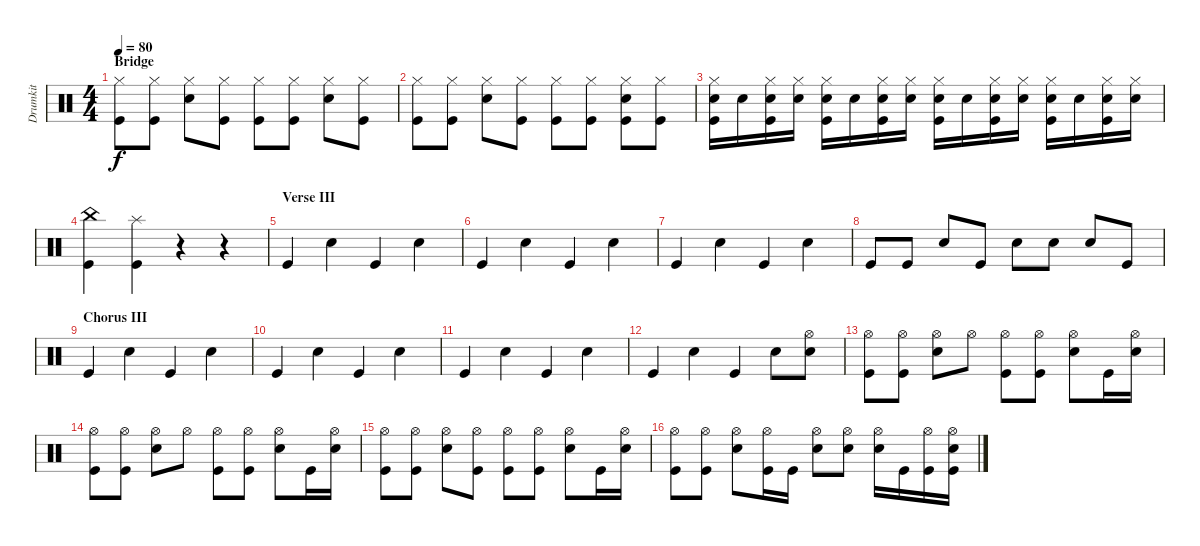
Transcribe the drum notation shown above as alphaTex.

\track ("Drumkit" "Drumkit") {instrument percussion}
\staff {score}
\articulation defaults
\ts (4 4)
\section ("" "Bridge")
\tempo 80
\clef neutral
\ks c
("Hi-Hat (closed)" "Kick (hit)").8{dy f} ("Hi-Hat (closed)" "Kick (hit)").8 ("Hi-Hat (closed)" "Snare (hit) 2").8 ("Hi-Hat (closed)" "Kick (hit)").8 ("Hi-Hat (closed)" "Kick (hit)").8 ("Hi-Hat (closed)" "Kick (hit)").8 ("Hi-Hat (closed)" "Snare (hit) 2").8 ("Hi-Hat (closed)" "Kick (hit)").8 |
("Hi-Hat (closed)" "Kick (hit)").8 ("Hi-Hat (closed)" "Kick (hit)").8 ("Hi-Hat (closed)" "Snare (hit) 2").8 ("Hi-Hat (closed)" "Kick (hit)").8 ("Hi-Hat (closed)" "Kick (hit)").8 ("Hi-Hat (closed)" "Kick (hit)").8 ("Hi-Hat (closed)" "Kick (hit)" "Snare (hit) 2").8 ("Hi-Hat (closed)" "Kick (hit)").8 |
("Hi-Hat (closed)" "Kick (hit)" "Snare (hit) 2").16 "Snare (hit) 2".16 ("Hi-Hat (closed)" "Kick (hit)" "Snare (hit) 2").16 ("Hi-Hat (closed)" "Snare (hit) 2").16 ("Hi-Hat (closed)" "Kick (hit)" "Snare (hit) 2").16 "Snare (hit) 2".16 ("Hi-Hat (closed)" "Kick (hit)" "Snare (hit) 2").16 ("Hi-Hat (closed)" "Snare (hit) 2").16 ("Hi-Hat (closed)" "Kick (hit)" "Snare (hit) 2").16 "Snare (hit) 2".16 ("Hi-Hat (closed)" "Kick (hit)" "Snare (hit) 2").16 ("Hi-Hat (closed)" "Snare (hit) 2").16 ("Hi-Hat (closed)" "Kick (hit)" "Snare (hit) 2").16 "Snare (hit) 2".16 ("Hi-Hat (closed)" "Kick (hit)" "Snare (hit) 2").16 ("Hi-Hat (closed)" "Snare (hit) 2").16 |
("Kick (hit)" "China (hit)").4 ("Kick (hit)" "Splash (hit)").4 r.4 r.4 |
\section ("" "Verse III")
"Kick (hit)".4 "Snare (hit) 2".4 "Kick (hit)".4 "Snare (hit) 2".4 |
"Kick (hit)".4 "Snare (hit) 2".4 "Kick (hit)".4 "Snare (hit) 2".4 |
"Kick (hit)".4 "Snare (hit) 2".4 "Kick (hit)".4 "Snare (hit) 2".4 |
"Kick (hit)".8 "Kick (hit)".8 "Snare (hit) 2".8 "Kick (hit)".8 "Snare (hit) 2".8 "Snare (hit) 2".8 "Snare (hit) 2".8 "Kick (hit)".8 |
\section ("" "Chorus III")
"Kick (hit)".4 "Snare (hit) 2".4 "Kick (hit)".4 "Snare (hit) 2".4 |
"Kick (hit)".4 "Snare (hit) 2".4 "Kick (hit)".4 "Snare (hit) 2".4 |
"Kick (hit)".4 "Snare (hit) 2".4 "Kick (hit)".4 "Snare (hit) 2".4 |
"Kick (hit)".4 "Snare (hit) 2".4 "Kick (hit)".4 "Snare (hit) 2".8 ("Hi-Hat (open)" "Snare (hit) 2").8 |
("Hi-Hat (open)" "Kick (hit)").8 ("Hi-Hat (open)" "Kick (hit)").8 ("Hi-Hat (open)" "Snare (hit) 2").8 "Hi-Hat (open)".8 ("Hi-Hat (open)" "Kick (hit)").8 ("Hi-Hat (open)" "Kick (hit)").8 ("Hi-Hat (open)" "Snare (hit) 2").8 "Kick (hit)".16 ("Hi-Hat (open)" "Snare (hit) 2").16 |
("Hi-Hat (open)" "Kick (hit)").8 ("Hi-Hat (open)" "Kick (hit)").8 ("Hi-Hat (open)" "Snare (hit) 2").8 "Hi-Hat (open)".8 ("Hi-Hat (open)" "Kick (hit)").8 ("Hi-Hat (open)" "Kick (hit)").8 ("Hi-Hat (open)" "Snare (hit) 2").8 "Kick (hit)".16 ("Hi-Hat (open)" "Snare (hit) 2").16 |
("Hi-Hat (open)" "Kick (hit)").8 ("Hi-Hat (open)" "Kick (hit)").8 ("Hi-Hat (open)" "Snare (hit) 2").8 ("Hi-Hat (open)" "Kick (hit)").8 ("Hi-Hat (open)" "Kick (hit)").8 ("Hi-Hat (open)" "Kick (hit)").8 ("Hi-Hat (open)" "Snare (hit) 2").8 "Kick (hit)".16 ("Hi-Hat (open)" "Snare (hit) 2").16 |
("Hi-Hat (open)" "Kick (hit)").8 ("Hi-Hat (open)" "Kick (hit)").8 ("Hi-Hat (open)" "Snare (hit) 2").8 ("Hi-Hat (open)" "Kick (hit)").16 "Kick (hit)".16 ("Hi-Hat (open)" "Snare (hit) 2").8 ("Hi-Hat (open)" "Snare (hit) 2").8 ("Hi-Hat (open)" "Snare (hit) 2").16 "Kick (hit)".16 ("Hi-Hat (open)" "Kick (hit)").16 ("Hi-Hat (open)" "Snare (hit) 2" "Kick (hit)").16
